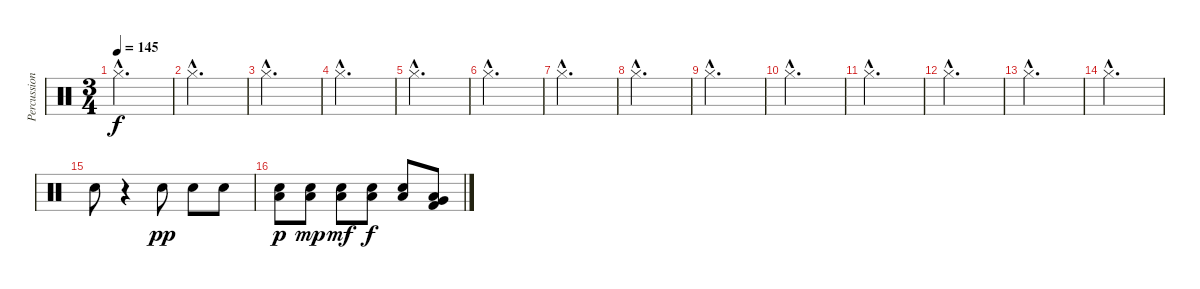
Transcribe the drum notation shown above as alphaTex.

\track ("Percussion" "Percussion") {instrument percussion}
\staff {score}
\articulation defaults
\ts (3 4)
\tempo 145
\clef neutral
\ks c "Hi-Hat (closed)"{hac}.2{d dy f}
|
"Hi-Hat (closed)"{hac}.2{d} |
"Hi-Hat (closed)"{hac}.2{d} |
"Hi-Hat (closed)"{hac}.2{d} |
"Hi-Hat (closed)"{hac}.2{d} |
"Hi-Hat (closed)"{hac}.2{d} |
"Hi-Hat (closed)"{hac}.2{d} |
"Hi-Hat (closed)"{hac}.2{d} |
"Hi-Hat (closed)"{hac}.2{d} |
"Hi-Hat (closed)"{hac}.2{d} |
"Hi-Hat (closed)"{hac}.2{d} |
"Hi-Hat (closed)"{hac}.2{d} |
"Hi-Hat (closed)"{hac}.2{d} |
"Hi-Hat (closed)"{hac}.2{d} |
"Electric Snare (hit)".8 r.4 "Electric Snare (hit)".8{dy pp} "Electric Snare (hit)".8 "Electric Snare (hit)".8 |
("Low Floor Tom (hit)" "Electric Snare (hit)").8{dy p} ("Low Floor Tom (hit)" "Electric Snare (hit)").8{dy mp} ("Low Floor Tom (hit)" "Electric Snare (hit)").8{dy mf} ("Low Floor Tom (hit)" "Electric Snare (hit)").8{dy f} ("Low Floor Tom (hit)" "Electric Snare (hit)").8 ("Kick (hit) 2" "Low Floor Tom (hit)" "Very Low Tom (hit)").8
